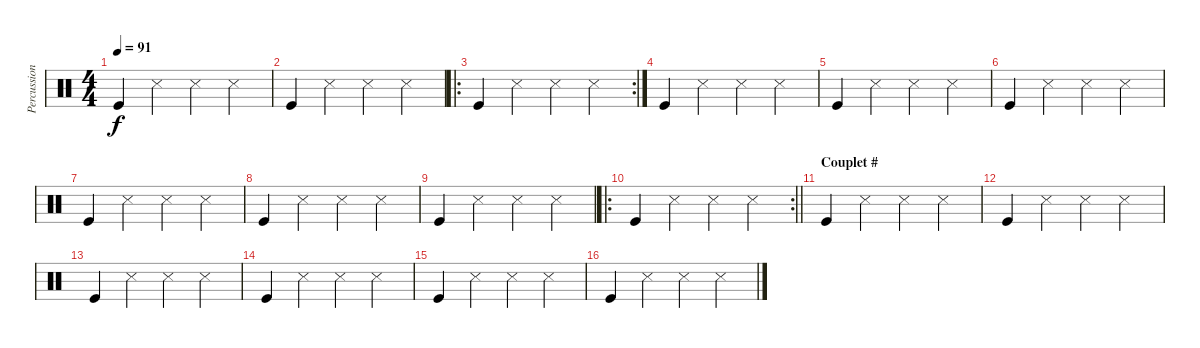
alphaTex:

\track ("Percussions" "Percussion") {instrument percussion}
\staff {score}
\articulation defaults
\ts (4 4)
\tempo 91
\clef neutral
\ks c "Kick (hit)".4{dy f} "Snare (side stick) 3".4 "Snare (side stick) 3".4 "Metronome (hit)".4
|
"Kick (hit)".4 "Snare (side stick) 3".4 "Snare (side stick) 3".4 "Metronome (hit)".4 |
\ro
\rc 2 "Kick (hit)".4 "Snare (side stick) 3".4 "Snare (side stick) 3".4 "Metronome (hit)".4
|
"Kick (hit)".4 "Snare (side stick) 3".4 "Snare (side stick) 3".4 "Metronome (hit)".4 |
"Kick (hit)".4 "Snare (side stick) 3".4 "Snare (side stick) 3".4 "Metronome (hit)".4 |
"Kick (hit)".4 "Snare (side stick) 3".4 "Snare (side stick) 3".4 "Metronome (hit)".4 |
"Kick (hit)".4 "Snare (side stick) 3".4 "Snare (side stick) 3".4 "Metronome (hit)".4 |
"Kick (hit)".4 "Snare (side stick) 3".4 "Snare (side stick) 3".4 "Metronome (hit)".4 |
"Kick (hit)".4 "Snare (side stick) 3".4 "Snare (side stick) 3".4 "Metronome (hit)".4 |
\ro
\rc 2
\barLineRight lightlight "Kick (hit)".4 "Snare (side stick) 3".4 "Snare (side stick) 3".4 "Metronome (hit)".4
|
\section ("" "Couplet #")
"Kick (hit)".4 "Snare (side stick) 3".4 "Snare (side stick) 3".4 "Metronome (hit)".4 |
"Kick (hit)".4 "Snare (side stick) 3".4 "Snare (side stick) 3".4 "Metronome (hit)".4 |
"Kick (hit)".4 "Snare (side stick) 3".4 "Snare (side stick) 3".4 "Metronome (hit)".4 |
"Kick (hit)".4 "Snare (side stick) 3".4 "Snare (side stick) 3".4 "Metronome (hit)".4 |
"Kick (hit)".4 "Snare (side stick) 3".4 "Snare (side stick) 3".4 "Metronome (hit)".4 |
"Kick (hit)".4 "Snare (side stick) 3".4 "Snare (side stick) 3".4 "Metronome (hit)".4
